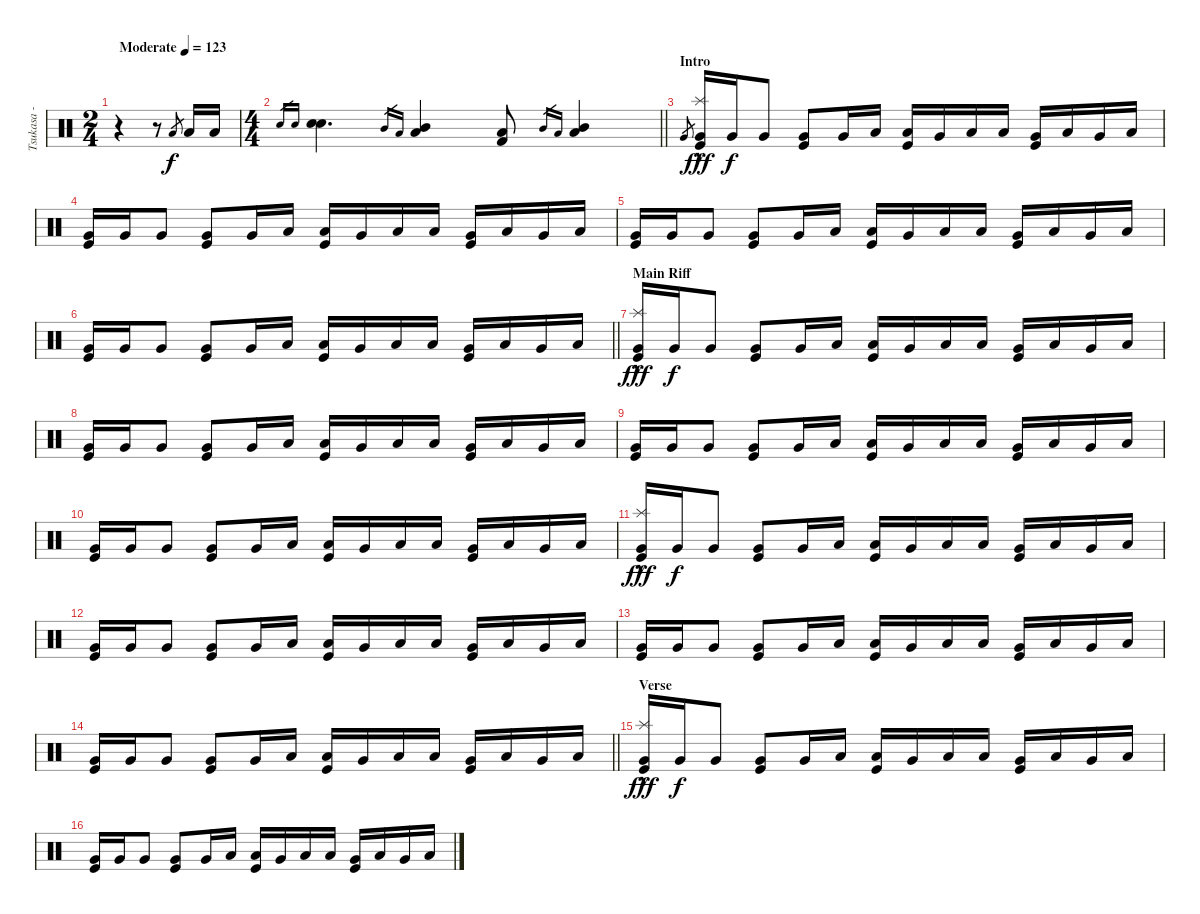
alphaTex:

\track ("Tsukasa - Drums" "Tsukasa - ") {instrument percussion}
\staff {score}
\articulation defaults
\ts (2 4)
\tempo (123 "Moderate")
\clef neutral
\ks c
r.4{dy f} r.8 "Low Tom (hit)".8{gr} "Low Tom (hit)".16 "Low Tom (hit)".16 |
\ts (4 4)
\barLineRight lightlight "Electric Snare (hit)".16{gr} "Snare (hit) 2".16{gr}
("Electric Snare (hit)" "Snare (hit) 2").4{d} "Mid Tom (hit)".16{gr} "Low Tom (hit)".16{gr} ("Mid Tom (hit)" "Low Tom (hit)").4 ("Low Floor Tom (hit)" "Kick (hit) 2").8 "Mid Tom (hit)".16{gr} "Low Tom (hit)".16{gr} ("Mid Tom (hit)" "Low Tom (hit)").4 |
\section ("" "Intro")
"Very Low Tom (hit)".8{gr} ("Splash (hit)"{hac} "Very Low Tom (hit)" "Kick (hit)").16{dy fff} "Very Low Tom (hit)".16{dy f} "Very Low Tom (hit)".8 ("Very Low Tom (hit)" "Kick (hit)").8 "Very Low Tom (hit)".16 "Low Tom (hit)".16 ("Low Tom (hit)" "Kick (hit)").16 "Very Low Tom (hit)".16 "Low Floor Tom (hit)".16 "Low Floor Tom (hit)".16 ("Very Low Tom (hit)" "Kick (hit)").16 "Low Floor Tom (hit)".16 "Very Low Tom (hit)".16 "Low Floor Tom (hit)".16 |
("Very Low Tom (hit)" "Kick (hit)").16 "Very Low Tom (hit)".16 "Very Low Tom (hit)".8 ("Very Low Tom (hit)" "Kick (hit)").8 "Very Low Tom (hit)".16 "Low Tom (hit)".16 ("Low Tom (hit)" "Kick (hit)").16 "Very Low Tom (hit)".16 "Low Floor Tom (hit)".16 "Low Floor Tom (hit)".16 ("Very Low Tom (hit)" "Kick (hit)").16 "Low Floor Tom (hit)".16 "Very Low Tom (hit)".16 "Low Floor Tom (hit)".16 |
("Very Low Tom (hit)" "Kick (hit)").16 "Very Low Tom (hit)".16 "Very Low Tom (hit)".8 ("Very Low Tom (hit)" "Kick (hit)").8 "Very Low Tom (hit)".16 "Low Tom (hit)".16 ("Low Tom (hit)" "Kick (hit)").16 "Very Low Tom (hit)".16 "Low Floor Tom (hit)".16 "Low Floor Tom (hit)".16 ("Very Low Tom (hit)" "Kick (hit)").16 "Low Floor Tom (hit)".16 "Very Low Tom (hit)".16 "Low Floor Tom (hit)".16 |
\barLineRight lightlight
("Very Low Tom (hit)" "Kick (hit)").16 "Very Low Tom (hit)".16 "Very Low Tom (hit)".8 ("Very Low Tom (hit)" "Kick (hit)").8 "Very Low Tom (hit)".16 "Low Tom (hit)".16 ("Low Tom (hit)" "Kick (hit)").16 "Very Low Tom (hit)".16 "Low Floor Tom (hit)".16 "Low Floor Tom (hit)".16 ("Very Low Tom (hit)" "Kick (hit)").16 "Low Floor Tom (hit)".16 "Very Low Tom (hit)".16 "Low Floor Tom (hit)".16 |
\section ("" "Main Riff")
("Splash (hit)"{hac} "Very Low Tom (hit)" "Kick (hit)").16{dy fff} "Very Low Tom (hit)".16{dy f} "Very Low Tom (hit)".8 ("Very Low Tom (hit)" "Kick (hit)").8 "Very Low Tom (hit)".16 "Low Tom (hit)".16 ("Low Tom (hit)" "Kick (hit)").16 "Very Low Tom (hit)".16 "Low Floor Tom (hit)".16 "Low Floor Tom (hit)".16 ("Very Low Tom (hit)" "Kick (hit)").16 "Low Floor Tom (hit)".16 "Very Low Tom (hit)".16 "Low Floor Tom (hit)".16 |
("Very Low Tom (hit)" "Kick (hit)").16 "Very Low Tom (hit)".16 "Very Low Tom (hit)".8 ("Very Low Tom (hit)" "Kick (hit)").8 "Very Low Tom (hit)".16 "Low Tom (hit)".16 ("Low Tom (hit)" "Kick (hit)").16 "Very Low Tom (hit)".16 "Low Floor Tom (hit)".16 "Low Floor Tom (hit)".16 ("Very Low Tom (hit)" "Kick (hit)").16 "Low Floor Tom (hit)".16 "Very Low Tom (hit)".16 "Low Floor Tom (hit)".16 |
("Very Low Tom (hit)" "Kick (hit)").16 "Very Low Tom (hit)".16 "Very Low Tom (hit)".8 ("Very Low Tom (hit)" "Kick (hit)").8 "Very Low Tom (hit)".16 "Low Tom (hit)".16 ("Low Tom (hit)" "Kick (hit)").16 "Very Low Tom (hit)".16 "Low Floor Tom (hit)".16 "Low Floor Tom (hit)".16 ("Very Low Tom (hit)" "Kick (hit)").16 "Low Floor Tom (hit)".16 "Very Low Tom (hit)".16 "Low Floor Tom (hit)".16 |
("Very Low Tom (hit)" "Kick (hit)").16 "Very Low Tom (hit)".16 "Very Low Tom (hit)".8 ("Very Low Tom (hit)" "Kick (hit)").8 "Very Low Tom (hit)".16 "Low Tom (hit)".16 ("Low Tom (hit)" "Kick (hit)").16 "Very Low Tom (hit)".16 "Low Floor Tom (hit)".16 "Low Floor Tom (hit)".16 ("Very Low Tom (hit)" "Kick (hit)").16 "Low Floor Tom (hit)".16 "Very Low Tom (hit)".16 "Low Floor Tom (hit)".16 |
("Splash (hit)"{hac} "Very Low Tom (hit)" "Kick (hit)").16{dy fff} "Very Low Tom (hit)".16{dy f} "Very Low Tom (hit)".8 ("Very Low Tom (hit)" "Kick (hit)").8 "Very Low Tom (hit)".16 "Low Tom (hit)".16 ("Low Tom (hit)" "Kick (hit)").16 "Very Low Tom (hit)".16 "Low Floor Tom (hit)".16 "Low Floor Tom (hit)".16 ("Very Low Tom (hit)" "Kick (hit)").16 "Low Floor Tom (hit)".16 "Very Low Tom (hit)".16 "Low Floor Tom (hit)".16 |
("Very Low Tom (hit)" "Kick (hit)").16 "Very Low Tom (hit)".16 "Very Low Tom (hit)".8 ("Very Low Tom (hit)" "Kick (hit)").8 "Very Low Tom (hit)".16 "Low Tom (hit)".16 ("Low Tom (hit)" "Kick (hit)").16 "Very Low Tom (hit)".16 "Low Floor Tom (hit)".16 "Low Floor Tom (hit)".16 ("Very Low Tom (hit)" "Kick (hit)").16 "Low Floor Tom (hit)".16 "Very Low Tom (hit)".16 "Low Floor Tom (hit)".16 |
("Very Low Tom (hit)" "Kick (hit)").16 "Very Low Tom (hit)".16 "Very Low Tom (hit)".8 ("Very Low Tom (hit)" "Kick (hit)").8 "Very Low Tom (hit)".16 "Low Tom (hit)".16 ("Low Tom (hit)" "Kick (hit)").16 "Very Low Tom (hit)".16 "Low Floor Tom (hit)".16 "Low Floor Tom (hit)".16 ("Very Low Tom (hit)" "Kick (hit)").16 "Low Floor Tom (hit)".16 "Very Low Tom (hit)".16 "Low Floor Tom (hit)".16 |
\barLineRight lightlight
("Very Low Tom (hit)" "Kick (hit)").16 "Very Low Tom (hit)".16 "Very Low Tom (hit)".8 ("Very Low Tom (hit)" "Kick (hit)").8 "Very Low Tom (hit)".16 "Low Tom (hit)".16 ("Low Tom (hit)" "Kick (hit)").16 "Very Low Tom (hit)".16 "Low Floor Tom (hit)".16 "Low Floor Tom (hit)".16 ("Very Low Tom (hit)" "Kick (hit)").16 "Low Floor Tom (hit)".16 "Very Low Tom (hit)".16 "Low Floor Tom (hit)".16 |
\section ("" "Verse")
("Splash (hit)"{hac} "Very Low Tom (hit)" "Kick (hit)").16{dy fff} "Very Low Tom (hit)".16{dy f} "Very Low Tom (hit)".8 ("Very Low Tom (hit)" "Kick (hit)").8 "Very Low Tom (hit)".16 "Low Tom (hit)".16 ("Low Tom (hit)" "Kick (hit)").16 "Very Low Tom (hit)".16 "Low Floor Tom (hit)".16 "Low Floor Tom (hit)".16 ("Very Low Tom (hit)" "Kick (hit)").16 "Low Floor Tom (hit)".16 "Very Low Tom (hit)".16 "Low Floor Tom (hit)".16 |
("Very Low Tom (hit)" "Kick (hit)").16 "Very Low Tom (hit)".16 "Very Low Tom (hit)".8 ("Very Low Tom (hit)" "Kick (hit)").8 "Very Low Tom (hit)".16 "Low Tom (hit)".16 ("Low Tom (hit)" "Kick (hit)").16 "Very Low Tom (hit)".16 "Low Floor Tom (hit)".16 "Low Floor Tom (hit)".16 ("Very Low Tom (hit)" "Kick (hit)").16 "Low Floor Tom (hit)".16 "Very Low Tom (hit)".16 "Low Floor Tom (hit)".16
